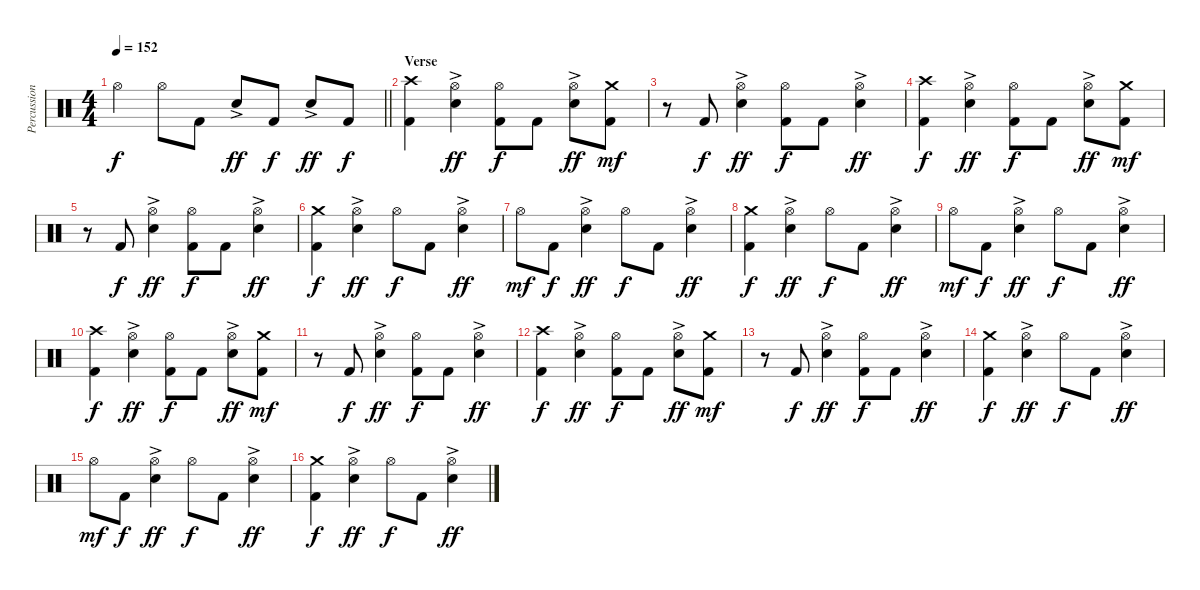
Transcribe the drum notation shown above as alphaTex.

\track ("Percussion" "Percussion") {instrument percussion}
\staff {score}
\articulation defaults
\ts (4 4)
\tempo 152
\clef neutral
\barLineRight lightlight
\ks c "Hi-Hat (open)".4{dy f} "Hi-Hat (open)".8 "Kick (hit) 2".8 "Electric Snare (hit)"{ac}.8{dy ff} "Kick (hit) 2".8{dy f} "Electric Snare (hit)"{ac}.8{dy ff} "Kick (hit) 2".8{dy f}
|
\section ("" "Verse")
("Crash high (hit)" "Kick (hit) 2").4 ("Hi-Hat (open)" "Electric Snare (hit)"{ac}).4{dy ff} ("Hi-Hat (open)" "Kick (hit) 2").8{dy f} "Kick (hit) 2".8 ("Hi-Hat (open)" "Electric Snare (hit)"{ac}).8{dy ff} ("Crash medium (hit)" "Kick (hit) 2").8{dy mf} |
r.8 "Kick (hit) 2".8{dy f} ("Hi-Hat (open)" "Electric Snare (hit)"{ac}).4{dy ff} ("Hi-Hat (open)" "Kick (hit) 2").8{dy f} "Kick (hit) 2".8 ("Hi-Hat (open)" "Electric Snare (hit)"{ac}).4{dy ff} |
("Crash high (hit)" "Kick (hit) 2").4{dy f} ("Hi-Hat (open)" "Electric Snare (hit)"{ac}).4{dy ff} ("Hi-Hat (open)" "Kick (hit) 2").8{dy f} "Kick (hit) 2".8 ("Hi-Hat (open)" "Electric Snare (hit)"{ac}).8{dy ff} ("Crash medium (hit)" "Kick (hit) 2").8{dy mf} |
r.8 "Kick (hit) 2".8{dy f} ("Hi-Hat (open)" "Electric Snare (hit)"{ac}).4{dy ff} ("Hi-Hat (open)" "Kick (hit) 2").8{dy f} "Kick (hit) 2".8 ("Hi-Hat (open)" "Electric Snare (hit)"{ac}).4{dy ff} |
("Crash medium (hit)" "Kick (hit) 2").4{dy f} ("Hi-Hat (open)" "Electric Snare (hit)"{ac}).4{dy ff} "Hi-Hat (open)".8{dy f} "Kick (hit) 2".8 ("Hi-Hat (open)" "Electric Snare (hit)"{ac}).4{dy ff} |
"Hi-Hat (open)".8{dy mf} "Kick (hit) 2".8{dy f} ("Hi-Hat (open)" "Electric Snare (hit)"{ac}).4{dy ff} "Hi-Hat (open)".8{dy f} "Kick (hit) 2".8 ("Hi-Hat (open)" "Electric Snare (hit)"{ac}).4{dy ff} |
("Crash medium (hit)" "Kick (hit) 2").4{dy f} ("Hi-Hat (open)" "Electric Snare (hit)"{ac}).4{dy ff} "Hi-Hat (open)".8{dy f} "Kick (hit) 2".8 ("Hi-Hat (open)" "Electric Snare (hit)"{ac}).4{dy ff} |
"Hi-Hat (open)".8{dy mf} "Kick (hit) 2".8{dy f} ("Hi-Hat (open)" "Electric Snare (hit)"{ac}).4{dy ff} "Hi-Hat (open)".8{dy f} "Kick (hit) 2".8 ("Hi-Hat (open)" "Electric Snare (hit)"{ac}).4{dy ff} |
("Crash high (hit)" "Kick (hit) 2").4{dy f} ("Hi-Hat (open)" "Electric Snare (hit)"{ac}).4{dy ff} ("Hi-Hat (open)" "Kick (hit) 2").8{dy f} "Kick (hit) 2".8 ("Hi-Hat (open)" "Electric Snare (hit)"{ac}).8{dy ff} ("Crash medium (hit)" "Kick (hit) 2").8{dy mf} |
r.8 "Kick (hit) 2".8{dy f} ("Hi-Hat (open)" "Electric Snare (hit)"{ac}).4{dy ff} ("Hi-Hat (open)" "Kick (hit) 2").8{dy f} "Kick (hit) 2".8 ("Hi-Hat (open)" "Electric Snare (hit)"{ac}).4{dy ff} |
("Crash high (hit)" "Kick (hit) 2").4{dy f} ("Hi-Hat (open)" "Electric Snare (hit)"{ac}).4{dy ff} ("Hi-Hat (open)" "Kick (hit) 2").8{dy f} "Kick (hit) 2".8 ("Hi-Hat (open)" "Electric Snare (hit)"{ac}).8{dy ff} ("Crash medium (hit)" "Kick (hit) 2").8{dy mf} |
r.8 "Kick (hit) 2".8{dy f} ("Hi-Hat (open)" "Electric Snare (hit)"{ac}).4{dy ff} ("Hi-Hat (open)" "Kick (hit) 2").8{dy f} "Kick (hit) 2".8 ("Hi-Hat (open)" "Electric Snare (hit)"{ac}).4{dy ff} |
("Crash medium (hit)" "Kick (hit) 2").4{dy f} ("Hi-Hat (open)" "Electric Snare (hit)"{ac}).4{dy ff} "Hi-Hat (open)".8{dy f} "Kick (hit) 2".8 ("Hi-Hat (open)" "Electric Snare (hit)"{ac}).4{dy ff} |
"Hi-Hat (open)".8{dy mf} "Kick (hit) 2".8{dy f} ("Hi-Hat (open)" "Electric Snare (hit)"{ac}).4{dy ff} "Hi-Hat (open)".8{dy f} "Kick (hit) 2".8 ("Hi-Hat (open)" "Electric Snare (hit)"{ac}).4{dy ff} |
("Crash medium (hit)" "Kick (hit) 2").4{dy f} ("Hi-Hat (open)" "Electric Snare (hit)"{ac}).4{dy ff} "Hi-Hat (open)".8{dy f} "Kick (hit) 2".8 ("Hi-Hat (open)" "Electric Snare (hit)"{ac}).4{dy ff}
